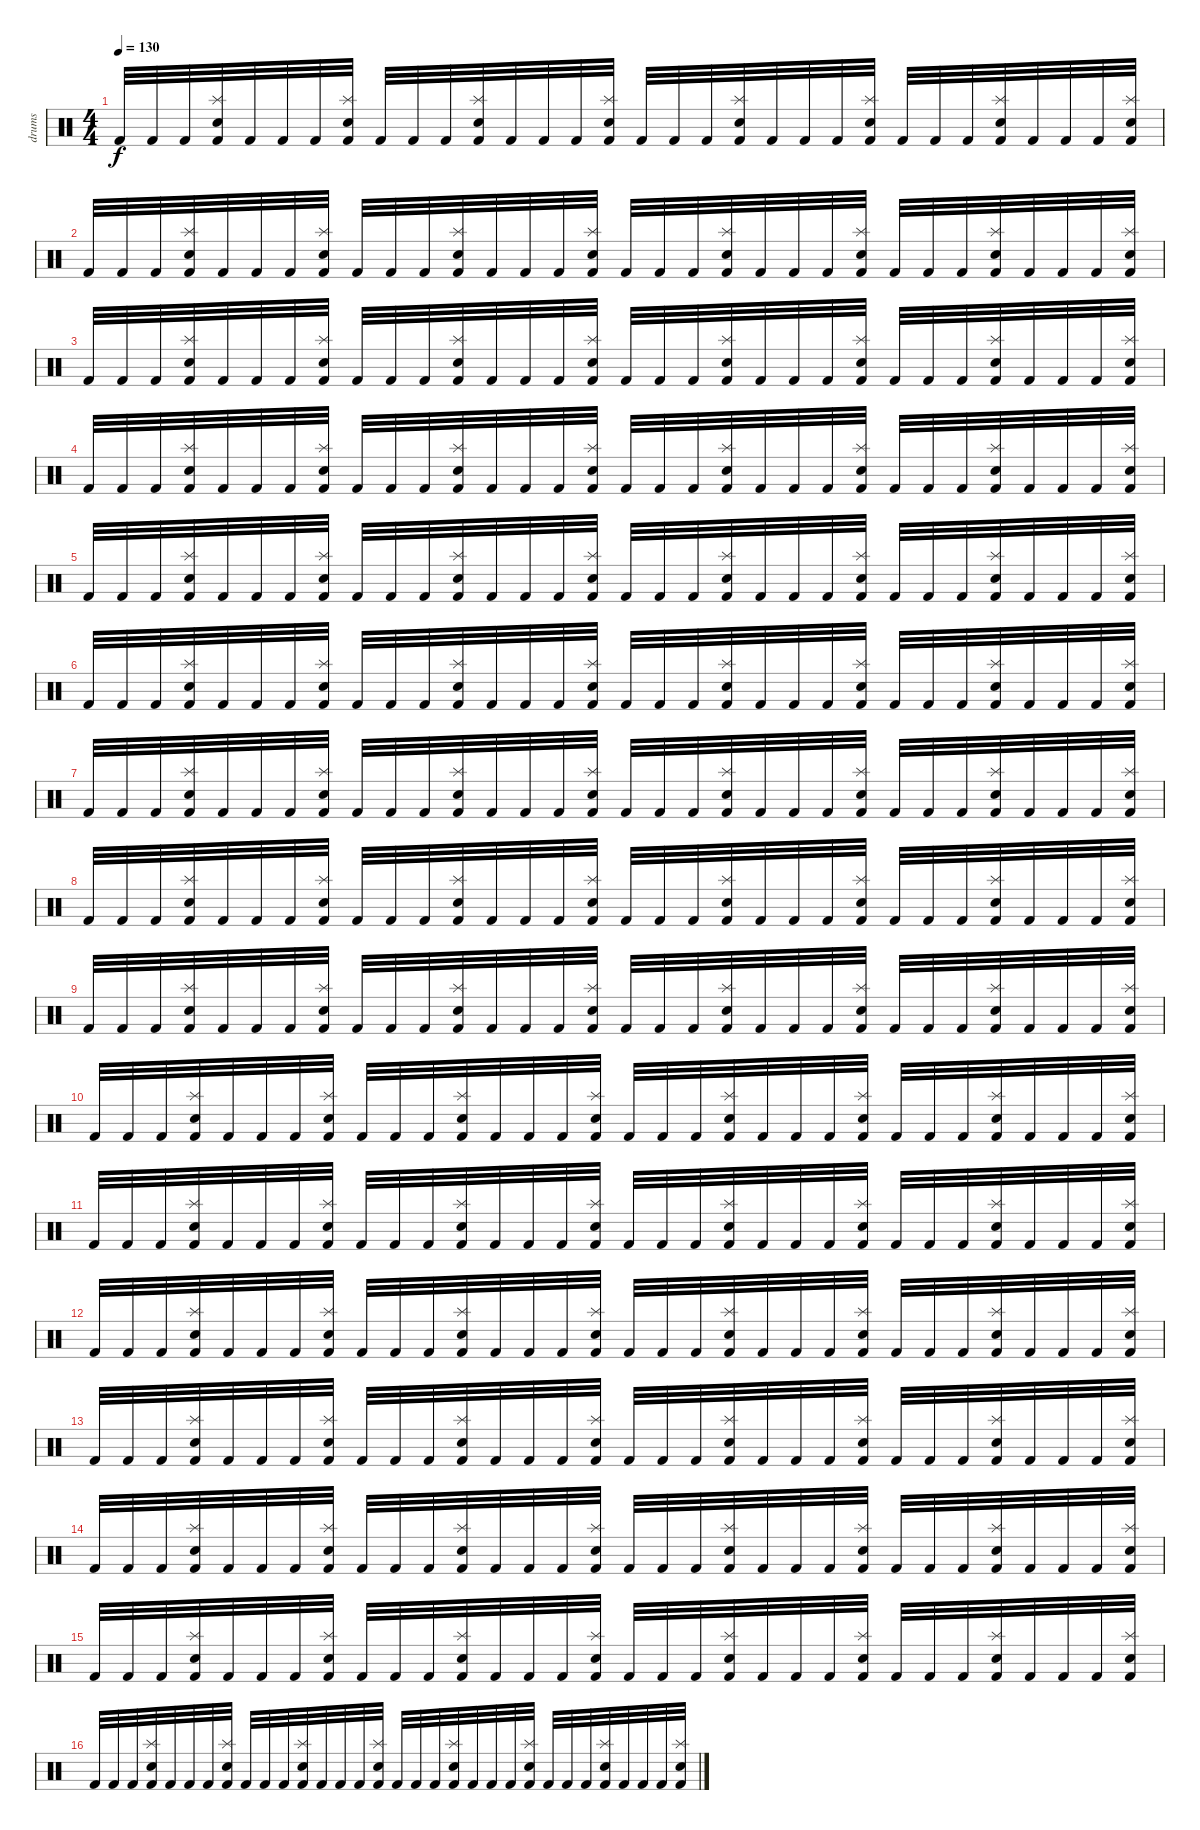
\track ("drums" "drums") {instrument percussion}
\staff {score}
\articulation defaults
\ts (4 4)
\tempo 130
\clef neutral
\ks c "Kick (hit) 2".32{dy f} "Kick (hit) 2".32 "Kick (hit) 2".32
("Splash (hit)" "Electric Snare (hit)" "Kick (hit) 2").32 "Kick (hit) 2".32 "Kick (hit) 2".32 "Kick (hit) 2".32 ("Splash (hit)" "Electric Snare (hit)" "Kick (hit) 2").32 "Kick (hit) 2".32 "Kick (hit) 2".32 "Kick (hit) 2".32 ("Splash (hit)" "Electric Snare (hit)" "Kick (hit) 2").32 "Kick (hit) 2".32 "Kick (hit) 2".32 "Kick (hit) 2".32 ("Splash (hit)" "Electric Snare (hit)" "Kick (hit) 2").32 "Kick (hit) 2".32 "Kick (hit) 2".32 "Kick (hit) 2".32 ("Splash (hit)" "Electric Snare (hit)" "Kick (hit) 2").32 "Kick (hit) 2".32 "Kick (hit) 2".32 "Kick (hit) 2".32 ("Splash (hit)" "Electric Snare (hit)" "Kick (hit) 2").32 "Kick (hit) 2".32 "Kick (hit) 2".32 "Kick (hit) 2".32 ("Splash (hit)" "Electric Snare (hit)" "Kick (hit) 2").32 "Kick (hit) 2".32 "Kick (hit) 2".32 "Kick (hit) 2".32 ("Splash (hit)" "Electric Snare (hit)" "Kick (hit) 2").32 |
"Kick (hit) 2".32 "Kick (hit) 2".32 "Kick (hit) 2".32 ("Splash (hit)" "Electric Snare (hit)" "Kick (hit) 2").32 "Kick (hit) 2".32 "Kick (hit) 2".32 "Kick (hit) 2".32 ("Splash (hit)" "Electric Snare (hit)" "Kick (hit) 2").32 "Kick (hit) 2".32 "Kick (hit) 2".32 "Kick (hit) 2".32 ("Splash (hit)" "Electric Snare (hit)" "Kick (hit) 2").32 "Kick (hit) 2".32 "Kick (hit) 2".32 "Kick (hit) 2".32 ("Splash (hit)" "Electric Snare (hit)" "Kick (hit) 2").32 "Kick (hit) 2".32 "Kick (hit) 2".32 "Kick (hit) 2".32 ("Splash (hit)" "Electric Snare (hit)" "Kick (hit) 2").32 "Kick (hit) 2".32 "Kick (hit) 2".32 "Kick (hit) 2".32 ("Splash (hit)" "Electric Snare (hit)" "Kick (hit) 2").32 "Kick (hit) 2".32 "Kick (hit) 2".32 "Kick (hit) 2".32 ("Splash (hit)" "Electric Snare (hit)" "Kick (hit) 2").32 "Kick (hit) 2".32 "Kick (hit) 2".32 "Kick (hit) 2".32 ("Splash (hit)" "Electric Snare (hit)" "Kick (hit) 2").32 |
"Kick (hit) 2".32 "Kick (hit) 2".32 "Kick (hit) 2".32 ("Splash (hit)" "Electric Snare (hit)" "Kick (hit) 2").32 "Kick (hit) 2".32 "Kick (hit) 2".32 "Kick (hit) 2".32 ("Splash (hit)" "Electric Snare (hit)" "Kick (hit) 2").32 "Kick (hit) 2".32 "Kick (hit) 2".32 "Kick (hit) 2".32 ("Splash (hit)" "Electric Snare (hit)" "Kick (hit) 2").32 "Kick (hit) 2".32 "Kick (hit) 2".32 "Kick (hit) 2".32 ("Splash (hit)" "Electric Snare (hit)" "Kick (hit) 2").32 "Kick (hit) 2".32 "Kick (hit) 2".32 "Kick (hit) 2".32 ("Splash (hit)" "Electric Snare (hit)" "Kick (hit) 2").32 "Kick (hit) 2".32 "Kick (hit) 2".32 "Kick (hit) 2".32 ("Splash (hit)" "Electric Snare (hit)" "Kick (hit) 2").32 "Kick (hit) 2".32 "Kick (hit) 2".32 "Kick (hit) 2".32 ("Splash (hit)" "Electric Snare (hit)" "Kick (hit) 2").32 "Kick (hit) 2".32 "Kick (hit) 2".32 "Kick (hit) 2".32 ("Splash (hit)" "Electric Snare (hit)" "Kick (hit) 2").32 |
"Kick (hit) 2".32 "Kick (hit) 2".32 "Kick (hit) 2".32 ("Splash (hit)" "Electric Snare (hit)" "Kick (hit) 2").32 "Kick (hit) 2".32 "Kick (hit) 2".32 "Kick (hit) 2".32 ("Splash (hit)" "Electric Snare (hit)" "Kick (hit) 2").32 "Kick (hit) 2".32 "Kick (hit) 2".32 "Kick (hit) 2".32 ("Splash (hit)" "Electric Snare (hit)" "Kick (hit) 2").32 "Kick (hit) 2".32 "Kick (hit) 2".32 "Kick (hit) 2".32 ("Splash (hit)" "Electric Snare (hit)" "Kick (hit) 2").32 "Kick (hit) 2".32 "Kick (hit) 2".32 "Kick (hit) 2".32 ("Splash (hit)" "Electric Snare (hit)" "Kick (hit) 2").32 "Kick (hit) 2".32 "Kick (hit) 2".32 "Kick (hit) 2".32 ("Splash (hit)" "Electric Snare (hit)" "Kick (hit) 2").32 "Kick (hit) 2".32 "Kick (hit) 2".32 "Kick (hit) 2".32 ("Splash (hit)" "Electric Snare (hit)" "Kick (hit) 2").32 "Kick (hit) 2".32 "Kick (hit) 2".32 "Kick (hit) 2".32 ("Splash (hit)" "Electric Snare (hit)" "Kick (hit) 2").32 |
"Kick (hit) 2".32 "Kick (hit) 2".32 "Kick (hit) 2".32 ("Splash (hit)" "Electric Snare (hit)" "Kick (hit) 2").32 "Kick (hit) 2".32 "Kick (hit) 2".32 "Kick (hit) 2".32 ("Splash (hit)" "Electric Snare (hit)" "Kick (hit) 2").32 "Kick (hit) 2".32 "Kick (hit) 2".32 "Kick (hit) 2".32 ("Splash (hit)" "Electric Snare (hit)" "Kick (hit) 2").32 "Kick (hit) 2".32 "Kick (hit) 2".32 "Kick (hit) 2".32 ("Splash (hit)" "Electric Snare (hit)" "Kick (hit) 2").32 "Kick (hit) 2".32 "Kick (hit) 2".32 "Kick (hit) 2".32 ("Splash (hit)" "Electric Snare (hit)" "Kick (hit) 2").32 "Kick (hit) 2".32 "Kick (hit) 2".32 "Kick (hit) 2".32 ("Splash (hit)" "Electric Snare (hit)" "Kick (hit) 2").32 "Kick (hit) 2".32 "Kick (hit) 2".32 "Kick (hit) 2".32 ("Splash (hit)" "Electric Snare (hit)" "Kick (hit) 2").32 "Kick (hit) 2".32 "Kick (hit) 2".32 "Kick (hit) 2".32 ("Splash (hit)" "Electric Snare (hit)" "Kick (hit) 2").32 |
"Kick (hit) 2".32 "Kick (hit) 2".32 "Kick (hit) 2".32 ("Splash (hit)" "Electric Snare (hit)" "Kick (hit) 2").32 "Kick (hit) 2".32 "Kick (hit) 2".32 "Kick (hit) 2".32 ("Splash (hit)" "Electric Snare (hit)" "Kick (hit) 2").32 "Kick (hit) 2".32 "Kick (hit) 2".32 "Kick (hit) 2".32 ("Splash (hit)" "Electric Snare (hit)" "Kick (hit) 2").32 "Kick (hit) 2".32 "Kick (hit) 2".32 "Kick (hit) 2".32 ("Splash (hit)" "Electric Snare (hit)" "Kick (hit) 2").32 "Kick (hit) 2".32 "Kick (hit) 2".32 "Kick (hit) 2".32 ("Splash (hit)" "Electric Snare (hit)" "Kick (hit) 2").32 "Kick (hit) 2".32 "Kick (hit) 2".32 "Kick (hit) 2".32 ("Splash (hit)" "Electric Snare (hit)" "Kick (hit) 2").32 "Kick (hit) 2".32 "Kick (hit) 2".32 "Kick (hit) 2".32 ("Splash (hit)" "Electric Snare (hit)" "Kick (hit) 2").32 "Kick (hit) 2".32 "Kick (hit) 2".32 "Kick (hit) 2".32 ("Splash (hit)" "Electric Snare (hit)" "Kick (hit) 2").32 |
"Kick (hit) 2".32 "Kick (hit) 2".32 "Kick (hit) 2".32 ("Splash (hit)" "Electric Snare (hit)" "Kick (hit) 2").32 "Kick (hit) 2".32 "Kick (hit) 2".32 "Kick (hit) 2".32 ("Splash (hit)" "Electric Snare (hit)" "Kick (hit) 2").32 "Kick (hit) 2".32 "Kick (hit) 2".32 "Kick (hit) 2".32 ("Splash (hit)" "Electric Snare (hit)" "Kick (hit) 2").32 "Kick (hit) 2".32 "Kick (hit) 2".32 "Kick (hit) 2".32 ("Splash (hit)" "Electric Snare (hit)" "Kick (hit) 2").32 "Kick (hit) 2".32 "Kick (hit) 2".32 "Kick (hit) 2".32 ("Splash (hit)" "Electric Snare (hit)" "Kick (hit) 2").32 "Kick (hit) 2".32 "Kick (hit) 2".32 "Kick (hit) 2".32 ("Splash (hit)" "Electric Snare (hit)" "Kick (hit) 2").32 "Kick (hit) 2".32 "Kick (hit) 2".32 "Kick (hit) 2".32 ("Splash (hit)" "Electric Snare (hit)" "Kick (hit) 2").32 "Kick (hit) 2".32 "Kick (hit) 2".32 "Kick (hit) 2".32 ("Splash (hit)" "Electric Snare (hit)" "Kick (hit) 2").32 |
"Kick (hit) 2".32 "Kick (hit) 2".32 "Kick (hit) 2".32 ("Splash (hit)" "Electric Snare (hit)" "Kick (hit) 2").32 "Kick (hit) 2".32 "Kick (hit) 2".32 "Kick (hit) 2".32 ("Splash (hit)" "Electric Snare (hit)" "Kick (hit) 2").32 "Kick (hit) 2".32 "Kick (hit) 2".32 "Kick (hit) 2".32 ("Splash (hit)" "Electric Snare (hit)" "Kick (hit) 2").32 "Kick (hit) 2".32 "Kick (hit) 2".32 "Kick (hit) 2".32 ("Splash (hit)" "Electric Snare (hit)" "Kick (hit) 2").32 "Kick (hit) 2".32 "Kick (hit) 2".32 "Kick (hit) 2".32 ("Splash (hit)" "Electric Snare (hit)" "Kick (hit) 2").32 "Kick (hit) 2".32 "Kick (hit) 2".32 "Kick (hit) 2".32 ("Splash (hit)" "Electric Snare (hit)" "Kick (hit) 2").32 "Kick (hit) 2".32 "Kick (hit) 2".32 "Kick (hit) 2".32 ("Splash (hit)" "Electric Snare (hit)" "Kick (hit) 2").32 "Kick (hit) 2".32 "Kick (hit) 2".32 "Kick (hit) 2".32 ("Splash (hit)" "Electric Snare (hit)" "Kick (hit) 2").32 |
"Kick (hit) 2".32 "Kick (hit) 2".32 "Kick (hit) 2".32 ("Splash (hit)" "Electric Snare (hit)" "Kick (hit) 2").32 "Kick (hit) 2".32 "Kick (hit) 2".32 "Kick (hit) 2".32 ("Splash (hit)" "Electric Snare (hit)" "Kick (hit) 2").32 "Kick (hit) 2".32 "Kick (hit) 2".32 "Kick (hit) 2".32 ("Splash (hit)" "Electric Snare (hit)" "Kick (hit) 2").32 "Kick (hit) 2".32 "Kick (hit) 2".32 "Kick (hit) 2".32 ("Splash (hit)" "Electric Snare (hit)" "Kick (hit) 2").32 "Kick (hit) 2".32 "Kick (hit) 2".32 "Kick (hit) 2".32 ("Splash (hit)" "Electric Snare (hit)" "Kick (hit) 2").32 "Kick (hit) 2".32 "Kick (hit) 2".32 "Kick (hit) 2".32 ("Splash (hit)" "Electric Snare (hit)" "Kick (hit) 2").32 "Kick (hit) 2".32 "Kick (hit) 2".32 "Kick (hit) 2".32 ("Splash (hit)" "Electric Snare (hit)" "Kick (hit) 2").32 "Kick (hit) 2".32 "Kick (hit) 2".32 "Kick (hit) 2".32 ("Splash (hit)" "Electric Snare (hit)" "Kick (hit) 2").32 |
"Kick (hit) 2".32 "Kick (hit) 2".32 "Kick (hit) 2".32 ("Splash (hit)" "Electric Snare (hit)" "Kick (hit) 2").32 "Kick (hit) 2".32 "Kick (hit) 2".32 "Kick (hit) 2".32 ("Splash (hit)" "Electric Snare (hit)" "Kick (hit) 2").32 "Kick (hit) 2".32 "Kick (hit) 2".32 "Kick (hit) 2".32 ("Splash (hit)" "Electric Snare (hit)" "Kick (hit) 2").32 "Kick (hit) 2".32 "Kick (hit) 2".32 "Kick (hit) 2".32 ("Splash (hit)" "Electric Snare (hit)" "Kick (hit) 2").32 "Kick (hit) 2".32 "Kick (hit) 2".32 "Kick (hit) 2".32 ("Splash (hit)" "Electric Snare (hit)" "Kick (hit) 2").32 "Kick (hit) 2".32 "Kick (hit) 2".32 "Kick (hit) 2".32 ("Splash (hit)" "Electric Snare (hit)" "Kick (hit) 2").32 "Kick (hit) 2".32 "Kick (hit) 2".32 "Kick (hit) 2".32 ("Splash (hit)" "Electric Snare (hit)" "Kick (hit) 2").32 "Kick (hit) 2".32 "Kick (hit) 2".32 "Kick (hit) 2".32 ("Splash (hit)" "Electric Snare (hit)" "Kick (hit) 2").32 |
"Kick (hit) 2".32 "Kick (hit) 2".32 "Kick (hit) 2".32 ("Splash (hit)" "Electric Snare (hit)" "Kick (hit) 2").32 "Kick (hit) 2".32 "Kick (hit) 2".32 "Kick (hit) 2".32 ("Splash (hit)" "Electric Snare (hit)" "Kick (hit) 2").32 "Kick (hit) 2".32 "Kick (hit) 2".32 "Kick (hit) 2".32 ("Splash (hit)" "Electric Snare (hit)" "Kick (hit) 2").32 "Kick (hit) 2".32 "Kick (hit) 2".32 "Kick (hit) 2".32 ("Splash (hit)" "Electric Snare (hit)" "Kick (hit) 2").32 "Kick (hit) 2".32 "Kick (hit) 2".32 "Kick (hit) 2".32 ("Splash (hit)" "Electric Snare (hit)" "Kick (hit) 2").32 "Kick (hit) 2".32 "Kick (hit) 2".32 "Kick (hit) 2".32 ("Splash (hit)" "Electric Snare (hit)" "Kick (hit) 2").32 "Kick (hit) 2".32 "Kick (hit) 2".32 "Kick (hit) 2".32 ("Splash (hit)" "Electric Snare (hit)" "Kick (hit) 2").32 "Kick (hit) 2".32 "Kick (hit) 2".32 "Kick (hit) 2".32 ("Splash (hit)" "Electric Snare (hit)" "Kick (hit) 2").32 |
"Kick (hit) 2".32 "Kick (hit) 2".32 "Kick (hit) 2".32 ("Splash (hit)" "Electric Snare (hit)" "Kick (hit) 2").32 "Kick (hit) 2".32 "Kick (hit) 2".32 "Kick (hit) 2".32 ("Splash (hit)" "Electric Snare (hit)" "Kick (hit) 2").32 "Kick (hit) 2".32 "Kick (hit) 2".32 "Kick (hit) 2".32 ("Splash (hit)" "Electric Snare (hit)" "Kick (hit) 2").32 "Kick (hit) 2".32 "Kick (hit) 2".32 "Kick (hit) 2".32 ("Splash (hit)" "Electric Snare (hit)" "Kick (hit) 2").32 "Kick (hit) 2".32 "Kick (hit) 2".32 "Kick (hit) 2".32 ("Splash (hit)" "Electric Snare (hit)" "Kick (hit) 2").32 "Kick (hit) 2".32 "Kick (hit) 2".32 "Kick (hit) 2".32 ("Splash (hit)" "Electric Snare (hit)" "Kick (hit) 2").32 "Kick (hit) 2".32 "Kick (hit) 2".32 "Kick (hit) 2".32 ("Splash (hit)" "Electric Snare (hit)" "Kick (hit) 2").32 "Kick (hit) 2".32 "Kick (hit) 2".32 "Kick (hit) 2".32 ("Splash (hit)" "Electric Snare (hit)" "Kick (hit) 2").32 |
"Kick (hit) 2".32 "Kick (hit) 2".32 "Kick (hit) 2".32 ("Splash (hit)" "Electric Snare (hit)" "Kick (hit) 2").32 "Kick (hit) 2".32 "Kick (hit) 2".32 "Kick (hit) 2".32 ("Splash (hit)" "Electric Snare (hit)" "Kick (hit) 2").32 "Kick (hit) 2".32 "Kick (hit) 2".32 "Kick (hit) 2".32 ("Splash (hit)" "Electric Snare (hit)" "Kick (hit) 2").32 "Kick (hit) 2".32 "Kick (hit) 2".32 "Kick (hit) 2".32 ("Splash (hit)" "Electric Snare (hit)" "Kick (hit) 2").32 "Kick (hit) 2".32 "Kick (hit) 2".32 "Kick (hit) 2".32 ("Splash (hit)" "Electric Snare (hit)" "Kick (hit) 2").32 "Kick (hit) 2".32 "Kick (hit) 2".32 "Kick (hit) 2".32 ("Splash (hit)" "Electric Snare (hit)" "Kick (hit) 2").32 "Kick (hit) 2".32 "Kick (hit) 2".32 "Kick (hit) 2".32 ("Splash (hit)" "Electric Snare (hit)" "Kick (hit) 2").32 "Kick (hit) 2".32 "Kick (hit) 2".32 "Kick (hit) 2".32 ("Splash (hit)" "Electric Snare (hit)" "Kick (hit) 2").32 |
"Kick (hit) 2".32 "Kick (hit) 2".32 "Kick (hit) 2".32 ("Splash (hit)" "Electric Snare (hit)" "Kick (hit) 2").32 "Kick (hit) 2".32 "Kick (hit) 2".32 "Kick (hit) 2".32 ("Splash (hit)" "Electric Snare (hit)" "Kick (hit) 2").32 "Kick (hit) 2".32 "Kick (hit) 2".32 "Kick (hit) 2".32 ("Splash (hit)" "Electric Snare (hit)" "Kick (hit) 2").32 "Kick (hit) 2".32 "Kick (hit) 2".32 "Kick (hit) 2".32 ("Splash (hit)" "Electric Snare (hit)" "Kick (hit) 2").32 "Kick (hit) 2".32 "Kick (hit) 2".32 "Kick (hit) 2".32 ("Splash (hit)" "Electric Snare (hit)" "Kick (hit) 2").32 "Kick (hit) 2".32 "Kick (hit) 2".32 "Kick (hit) 2".32 ("Splash (hit)" "Electric Snare (hit)" "Kick (hit) 2").32 "Kick (hit) 2".32 "Kick (hit) 2".32 "Kick (hit) 2".32 ("Splash (hit)" "Electric Snare (hit)" "Kick (hit) 2").32 "Kick (hit) 2".32 "Kick (hit) 2".32 "Kick (hit) 2".32 ("Splash (hit)" "Electric Snare (hit)" "Kick (hit) 2").32 |
"Kick (hit) 2".32 "Kick (hit) 2".32 "Kick (hit) 2".32 ("Splash (hit)" "Electric Snare (hit)" "Kick (hit) 2").32 "Kick (hit) 2".32 "Kick (hit) 2".32 "Kick (hit) 2".32 ("Splash (hit)" "Electric Snare (hit)" "Kick (hit) 2").32 "Kick (hit) 2".32 "Kick (hit) 2".32 "Kick (hit) 2".32 ("Splash (hit)" "Electric Snare (hit)" "Kick (hit) 2").32 "Kick (hit) 2".32 "Kick (hit) 2".32 "Kick (hit) 2".32 ("Splash (hit)" "Electric Snare (hit)" "Kick (hit) 2").32 "Kick (hit) 2".32 "Kick (hit) 2".32 "Kick (hit) 2".32 ("Splash (hit)" "Electric Snare (hit)" "Kick (hit) 2").32 "Kick (hit) 2".32 "Kick (hit) 2".32 "Kick (hit) 2".32 ("Splash (hit)" "Electric Snare (hit)" "Kick (hit) 2").32 "Kick (hit) 2".32 "Kick (hit) 2".32 "Kick (hit) 2".32 ("Splash (hit)" "Electric Snare (hit)" "Kick (hit) 2").32 "Kick (hit) 2".32 "Kick (hit) 2".32 "Kick (hit) 2".32 ("Splash (hit)" "Electric Snare (hit)" "Kick (hit) 2").32 |
"Kick (hit) 2".32 "Kick (hit) 2".32 "Kick (hit) 2".32 ("Splash (hit)" "Electric Snare (hit)" "Kick (hit) 2").32 "Kick (hit) 2".32 "Kick (hit) 2".32 "Kick (hit) 2".32 ("Splash (hit)" "Electric Snare (hit)" "Kick (hit) 2").32 "Kick (hit) 2".32 "Kick (hit) 2".32 "Kick (hit) 2".32 ("Splash (hit)" "Electric Snare (hit)" "Kick (hit) 2").32 "Kick (hit) 2".32 "Kick (hit) 2".32 "Kick (hit) 2".32 ("Splash (hit)" "Electric Snare (hit)" "Kick (hit) 2").32 "Kick (hit) 2".32 "Kick (hit) 2".32 "Kick (hit) 2".32 ("Splash (hit)" "Electric Snare (hit)" "Kick (hit) 2").32 "Kick (hit) 2".32 "Kick (hit) 2".32 "Kick (hit) 2".32 ("Splash (hit)" "Electric Snare (hit)" "Kick (hit) 2").32 "Kick (hit) 2".32 "Kick (hit) 2".32 "Kick (hit) 2".32 ("Splash (hit)" "Electric Snare (hit)" "Kick (hit) 2").32 "Kick (hit) 2".32 "Kick (hit) 2".32 "Kick (hit) 2".32 ("Splash (hit)" "Electric Snare (hit)" "Kick (hit) 2").32
